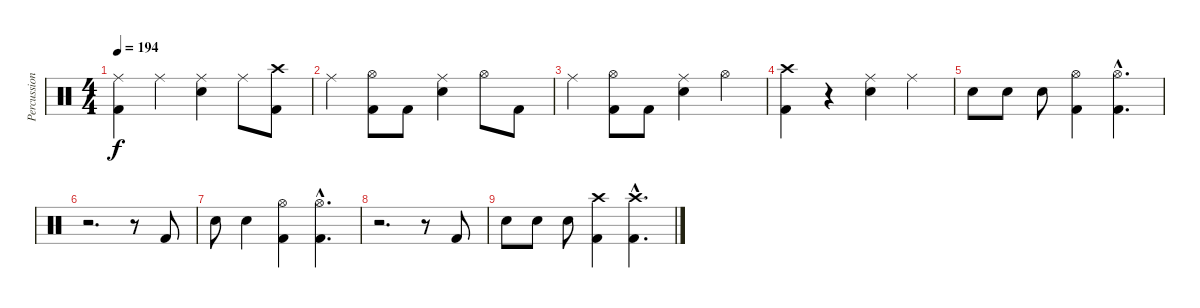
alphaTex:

\track ("Percussions" "Percussion") {instrument percussion}
\staff {score}
\articulation defaults
\ts (4 4)
\tempo 194
\clef neutral
\ks c
("Ride (middle)" "Kick (hit) 2").4{dy f} "Ride (middle)".4 ("Ride (middle)" "Electric Snare (hit)").4 "Ride (middle)".8 ("Crash high (hit)" "Kick (hit) 2").8 |
"Ride (middle)".4 ("Hi-Hat (open)" "Kick (hit) 2").8 "Kick (hit) 2".8 ("Ride (middle)" "Electric Snare (hit)").4 "Hi-Hat (open)".8 "Kick (hit) 2".8 |
"Ride (middle)".4 ("Hi-Hat (open)" "Kick (hit) 2").8 "Kick (hit) 2".8 ("Ride (middle)" "Electric Snare (hit)").4 "Hi-Hat (open)".4 |
("Crash high (hit)" "Kick (hit) 2").4 r.4 ("Ride (middle)" "Electric Snare (hit)").4 "Ride (middle)".4 |
"Electric Snare (hit)".8 "Electric Snare (hit)".8 "Electric Snare (hit)".8 ("Hi-Hat (open)" "Kick (hit) 2").4 ("Hi-Hat (open)"{hac} "Kick (hit) 2"{hac}).4{d} |
r.2{d} r.8 "Kick (hit) 2".8 |
"Electric Snare (hit)".8 "Electric Snare (hit)".4 ("Hi-Hat (open)" "Kick (hit) 2").4 ("Hi-Hat (open)"{hac} "Kick (hit) 2"{hac}).4{d} |
r.2{d} r.8 "Kick (hit) 2".8 |
"Electric Snare (hit)".8 "Electric Snare (hit)".8 "Electric Snare (hit)".8 ("Crash high (hit)" "Kick (hit) 2").4 ("Crash high (hit)"{hac} "Kick (hit) 2"{hac}).4{d}
